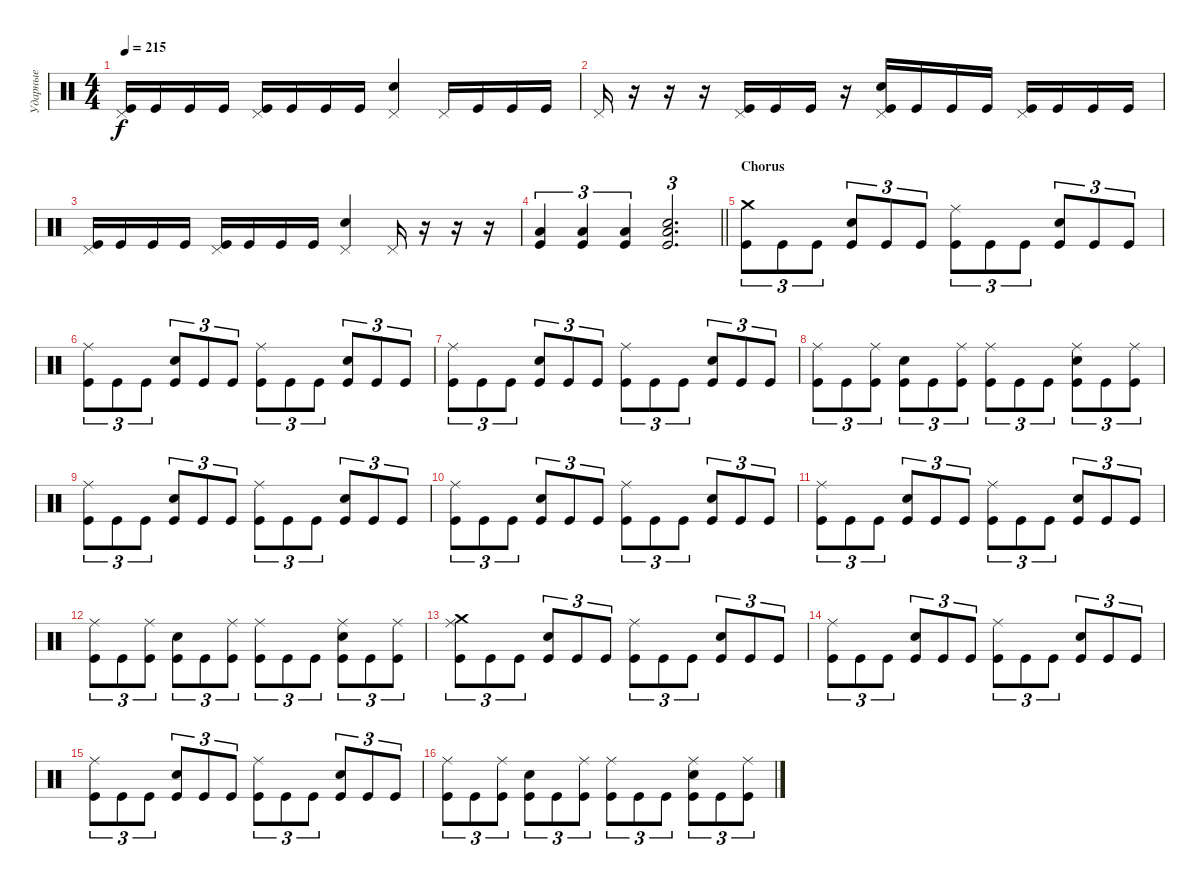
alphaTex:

\track ("Ударные" "Ударные") {instrument percussion}
\staff {score}
\articulation defaults
\ts (4 4)
\tempo 215
\clef neutral
\ks c
("Pedal Hi-Hat (hit)" "Kick (hit)").16{dy f} "Kick (hit)".16 "Kick (hit)".16 "Kick (hit)".16 ("Pedal Hi-Hat (hit)" "Kick (hit)").16 "Kick (hit)".16 "Kick (hit)".16 "Kick (hit)".16 ("Pedal Hi-Hat (hit)" "Electric Snare (hit)").4 "Pedal Hi-Hat (hit)".16 "Kick (hit)".16 "Kick (hit)".16 "Kick (hit)".16 |
"Pedal Hi-Hat (hit)".16 r.16 r.16 r.16 ("Pedal Hi-Hat (hit)" "Kick (hit)").16 "Kick (hit)".16 "Kick (hit)".16 r.16 ("Pedal Hi-Hat (hit)" "Electric Snare (hit)" "Kick (hit)").16 "Kick (hit)".16 "Kick (hit)".16 "Kick (hit)".16 ("Pedal Hi-Hat (hit)" "Kick (hit)").16 "Kick (hit)".16 "Kick (hit)".16 "Kick (hit)".16 |
("Pedal Hi-Hat (hit)" "Kick (hit)").16 "Kick (hit)".16 "Kick (hit)".16 "Kick (hit)".16 ("Pedal Hi-Hat (hit)" "Kick (hit)").16 "Kick (hit)".16 "Kick (hit)".16 "Kick (hit)".16 ("Pedal Hi-Hat (hit)" "Electric Snare (hit)").4 "Pedal Hi-Hat (hit)".16 r.16 r.16 r.16 |
\barLineRight lightlight
("Low Floor Tom (hit)" "Kick (hit)").4{tu (3 2)} ("Low Floor Tom (hit)" "Kick (hit)").4{tu (3 2)} ("Low Floor Tom (hit)" "Kick (hit)").4{tu (3 2)} ("Low Floor Tom (hit)" "Electric Snare (hit)" "Kick (hit)").2{d tu (3 2)} |
\section ("" "Chorus")
("Crash medium (hit)" "Kick (hit)").8{tu (3 2)} "Kick (hit)".8{tu (3 2)} "Kick (hit)".8{tu (3 2)} ("Electric Snare (hit)" "Kick (hit)").8{tu (3 2)} "Kick (hit)".8{tu (3 2)} "Kick (hit)".8{tu (3 2)} ("Ride (middle)" "Kick (hit)").8{tu (3 2)} "Kick (hit)".8{tu (3 2)} "Kick (hit)".8{tu (3 2)} ("Electric Snare (hit)" "Kick (hit)").8{tu (3 2)} "Kick (hit)".8{tu (3 2)} "Kick (hit)".8{tu (3 2)} |
("Ride (middle)" "Kick (hit)").8{tu (3 2)} "Kick (hit)".8{tu (3 2)} "Kick (hit)".8{tu (3 2)} ("Electric Snare (hit)" "Kick (hit)").8{tu (3 2)} "Kick (hit)".8{tu (3 2)} "Kick (hit)".8{tu (3 2)} ("Ride (middle)" "Kick (hit)").8{tu (3 2)} "Kick (hit)".8{tu (3 2)} "Kick (hit)".8{tu (3 2)} ("Electric Snare (hit)" "Kick (hit)").8{tu (3 2)} "Kick (hit)".8{tu (3 2)} "Kick (hit)".8{tu (3 2)} |
("Ride (middle)" "Kick (hit)").8{tu (3 2)} "Kick (hit)".8{tu (3 2)} "Kick (hit)".8{tu (3 2)} ("Electric Snare (hit)" "Kick (hit)").8{tu (3 2)} "Kick (hit)".8{tu (3 2)} "Kick (hit)".8{tu (3 2)} ("Ride (middle)" "Kick (hit)").8{tu (3 2)} "Kick (hit)".8{tu (3 2)} "Kick (hit)".8{tu (3 2)} ("Electric Snare (hit)" "Kick (hit)").8{tu (3 2)} "Kick (hit)".8{tu (3 2)} "Kick (hit)".8{tu (3 2)} |
("Ride (middle)" "Kick (hit)").8{tu (3 2)} "Kick (hit)".8{tu (3 2)} ("Ride (middle)" "Kick (hit)").8{tu (3 2)} ("Electric Snare (hit)" "Kick (hit)").8{tu (3 2)} "Kick (hit)".8{tu (3 2)} ("Ride (middle)" "Kick (hit)").8{tu (3 2)} ("Ride (middle)" "Kick (hit)").8{tu (3 2)} "Kick (hit)".8{tu (3 2)} "Kick (hit)".8{tu (3 2)} ("Ride (middle)" "Electric Snare (hit)" "Kick (hit)").8{tu (3 2)} "Kick (hit)".8{tu (3 2)} ("Ride (middle)" "Kick (hit)").8{tu (3 2)} |
("Ride (middle)" "Kick (hit)").8{tu (3 2)} "Kick (hit)".8{tu (3 2)} "Kick (hit)".8{tu (3 2)} ("Electric Snare (hit)" "Kick (hit)").8{tu (3 2)} "Kick (hit)".8{tu (3 2)} "Kick (hit)".8{tu (3 2)} ("Ride (middle)" "Kick (hit)").8{tu (3 2)} "Kick (hit)".8{tu (3 2)} "Kick (hit)".8{tu (3 2)} ("Electric Snare (hit)" "Kick (hit)").8{tu (3 2)} "Kick (hit)".8{tu (3 2)} "Kick (hit)".8{tu (3 2)} |
("Ride (middle)" "Kick (hit)").8{tu (3 2)} "Kick (hit)".8{tu (3 2)} "Kick (hit)".8{tu (3 2)} ("Electric Snare (hit)" "Kick (hit)").8{tu (3 2)} "Kick (hit)".8{tu (3 2)} "Kick (hit)".8{tu (3 2)} ("Ride (middle)" "Kick (hit)").8{tu (3 2)} "Kick (hit)".8{tu (3 2)} "Kick (hit)".8{tu (3 2)} ("Electric Snare (hit)" "Kick (hit)").8{tu (3 2)} "Kick (hit)".8{tu (3 2)} "Kick (hit)".8{tu (3 2)} |
("Ride (middle)" "Kick (hit)").8{tu (3 2)} "Kick (hit)".8{tu (3 2)} "Kick (hit)".8{tu (3 2)} ("Electric Snare (hit)" "Kick (hit)").8{tu (3 2)} "Kick (hit)".8{tu (3 2)} "Kick (hit)".8{tu (3 2)} ("Ride (middle)" "Kick (hit)").8{tu (3 2)} "Kick (hit)".8{tu (3 2)} "Kick (hit)".8{tu (3 2)} ("Electric Snare (hit)" "Kick (hit)").8{tu (3 2)} "Kick (hit)".8{tu (3 2)} "Kick (hit)".8{tu (3 2)} |
("Ride (middle)" "Kick (hit)").8{tu (3 2)} "Kick (hit)".8{tu (3 2)} ("Ride (middle)" "Kick (hit)").8{tu (3 2)} ("Electric Snare (hit)" "Kick (hit)").8{tu (3 2)} "Kick (hit)".8{tu (3 2)} ("Ride (middle)" "Kick (hit)").8{tu (3 2)} ("Ride (middle)" "Kick (hit)").8{tu (3 2)} "Kick (hit)".8{tu (3 2)} "Kick (hit)".8{tu (3 2)} ("Ride (middle)" "Electric Snare (hit)" "Kick (hit)").8{tu (3 2)} "Kick (hit)".8{tu (3 2)} ("Ride (middle)" "Kick (hit)").8{tu (3 2)} |
("Crash medium (hit)" "Ride (middle)" "Kick (hit)").8{tu (3 2)} "Kick (hit)".8{tu (3 2)} "Kick (hit)".8{tu (3 2)} ("Electric Snare (hit)" "Kick (hit)").8{tu (3 2)} "Kick (hit)".8{tu (3 2)} "Kick (hit)".8{tu (3 2)} ("Ride (middle)" "Kick (hit)").8{tu (3 2)} "Kick (hit)".8{tu (3 2)} "Kick (hit)".8{tu (3 2)} ("Electric Snare (hit)" "Kick (hit)").8{tu (3 2)} "Kick (hit)".8{tu (3 2)} "Kick (hit)".8{tu (3 2)} |
("Ride (middle)" "Kick (hit)").8{tu (3 2)} "Kick (hit)".8{tu (3 2)} "Kick (hit)".8{tu (3 2)} ("Electric Snare (hit)" "Kick (hit)").8{tu (3 2)} "Kick (hit)".8{tu (3 2)} "Kick (hit)".8{tu (3 2)} ("Ride (middle)" "Kick (hit)").8{tu (3 2)} "Kick (hit)".8{tu (3 2)} "Kick (hit)".8{tu (3 2)} ("Electric Snare (hit)" "Kick (hit)").8{tu (3 2)} "Kick (hit)".8{tu (3 2)} "Kick (hit)".8{tu (3 2)} |
("Ride (middle)" "Kick (hit)").8{tu (3 2)} "Kick (hit)".8{tu (3 2)} "Kick (hit)".8{tu (3 2)} ("Electric Snare (hit)" "Kick (hit)").8{tu (3 2)} "Kick (hit)".8{tu (3 2)} "Kick (hit)".8{tu (3 2)} ("Ride (middle)" "Kick (hit)").8{tu (3 2)} "Kick (hit)".8{tu (3 2)} "Kick (hit)".8{tu (3 2)} ("Electric Snare (hit)" "Kick (hit)").8{tu (3 2)} "Kick (hit)".8{tu (3 2)} "Kick (hit)".8{tu (3 2)} |
("Ride (middle)" "Kick (hit)").8{tu (3 2)} "Kick (hit)".8{tu (3 2)} ("Ride (middle)" "Kick (hit)").8{tu (3 2)} ("Electric Snare (hit)" "Kick (hit)").8{tu (3 2)} "Kick (hit)".8{tu (3 2)} ("Ride (middle)" "Kick (hit)").8{tu (3 2)} ("Ride (middle)" "Kick (hit)").8{tu (3 2)} "Kick (hit)".8{tu (3 2)} "Kick (hit)".8{tu (3 2)} ("Ride (middle)" "Electric Snare (hit)" "Kick (hit)").8{tu (3 2)} "Kick (hit)".8{tu (3 2)} ("Ride (middle)" "Kick (hit)").8{tu (3 2)}
